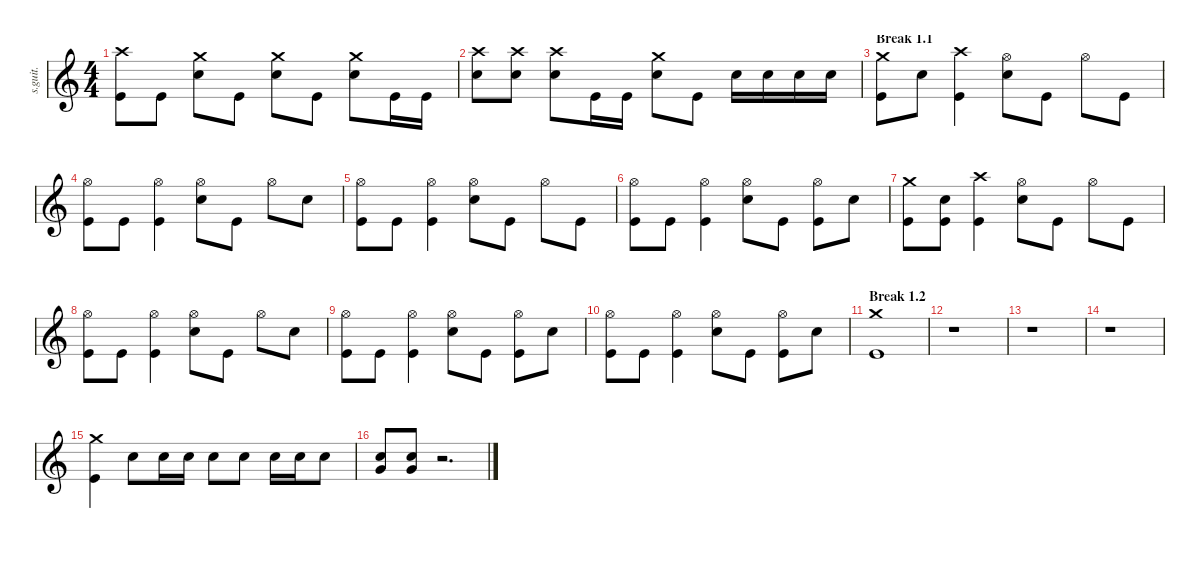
\defaultSystemsLayout 4
\hideDynamics
\bracketExtendMode nobrackets
\track ("Joey Jordison" "s.guit.") {instrument percussion}
\staff {score}
\articulation defaults
\ts (4 4)
\tempo (210 hide)
\clef g2
\ks c
("Crash high (hit)" "Kick (hit)").8{lyrics (0 "") lyrics (1 "") lyrics (2 "") lyrics (3 "") lyrics (4 "") dy ff} "Kick (hit)".8{lyrics (0 "") lyrics (1 "") lyrics (2 "") lyrics (3 "") lyrics (4 "")} ("Crash medium (hit)" "Snare (hit) 2").8{lyrics (0 "") lyrics (1 "") lyrics (2 "") lyrics (3 "") lyrics (4 "")} "Kick (hit)".8{lyrics (0 "") lyrics (1 "") lyrics (2 "") lyrics (3 "") lyrics (4 "")} ("Crash medium (hit)" "Snare (hit) 2").8{lyrics (0 "") lyrics (1 "") lyrics (2 "") lyrics (3 "") lyrics (4 "")} "Kick (hit)".8{lyrics (0 "") lyrics (1 "") lyrics (2 "") lyrics (3 "") lyrics (4 "")} ("Crash medium (hit)" "Snare (hit) 2").8{lyrics (0 "") lyrics (1 "") lyrics (2 "") lyrics (3 "") lyrics (4 "")} "Kick (hit)".16{lyrics (0 "") lyrics (1 "") lyrics (2 "") lyrics (3 "") lyrics (4 "")} "Kick (hit)".16{lyrics (0 "") lyrics (1 "") lyrics (2 "") lyrics (3 "") lyrics (4 "")} |
("Crash high (hit)" "Snare (hit) 2").8{lyrics (0 "") lyrics (1 "") lyrics (2 "") lyrics (3 "") lyrics (4 "")} ("Crash high (hit)" "Snare (hit) 2").8{lyrics (0 "") lyrics (1 "") lyrics (2 "") lyrics (3 "") lyrics (4 "")} ("Crash high (hit)" "Snare (hit) 2").8{lyrics (0 "") lyrics (1 "") lyrics (2 "") lyrics (3 "") lyrics (4 "")} "Kick (hit)".16{lyrics (0 "") lyrics (1 "") lyrics (2 "") lyrics (3 "") lyrics (4 "")} "Kick (hit)".16{lyrics (0 "") lyrics (1 "") lyrics (2 "") lyrics (3 "") lyrics (4 "")} ("Crash medium (hit)" "Snare (hit) 2").8{lyrics (0 "") lyrics (1 "") lyrics (2 "") lyrics (3 "") lyrics (4 "")} "Kick (hit)".8{lyrics (0 "") lyrics (1 "") lyrics (2 "") lyrics (3 "") lyrics (4 "")} "Snare (hit) 2".16{lyrics (0 "") lyrics (1 "") lyrics (2 "") lyrics (3 "") lyrics (4 "")} "Snare (hit) 2".16{lyrics (0 "") lyrics (1 "") lyrics (2 "") lyrics (3 "") lyrics (4 "")} "Snare (hit) 2".16{lyrics (0 "") lyrics (1 "") lyrics (2 "") lyrics (3 "") lyrics (4 "")} "Snare (hit) 2".16{lyrics (0 "") lyrics (1 "") lyrics (2 "") lyrics (3 "") lyrics (4 "")} |
\section ("" "Break 1.1")
("Crash medium (hit)" "Kick (hit)").8{lyrics (0 "") lyrics (1 "") lyrics (2 "") lyrics (3 "") lyrics (4 "")} "Snare (hit) 2".8{lyrics (0 "") lyrics (1 "") lyrics (2 "") lyrics (3 "") lyrics (4 "")} ("Crash high (hit)" "Kick (hit)").4{lyrics (0 "") lyrics (1 "") lyrics (2 "") lyrics (3 "") lyrics (4 "")} ("Hi-Hat (open)" "Snare (hit) 2").8{lyrics (0 "") lyrics (1 "") lyrics (2 "") lyrics (3 "") lyrics (4 "")} "Kick (hit)".8{lyrics (0 "") lyrics (1 "") lyrics (2 "") lyrics (3 "") lyrics (4 "")} "Hi-Hat (open)".8{lyrics (0 "") lyrics (1 "") lyrics (2 "") lyrics (3 "") lyrics (4 "")} "Kick (hit)".8{lyrics (0 "") lyrics (1 "") lyrics (2 "") lyrics (3 "") lyrics (4 "")} |
("Hi-Hat (open)" "Kick (hit)").8{lyrics (0 "") lyrics (1 "") lyrics (2 "") lyrics (3 "") lyrics (4 "")} "Kick (hit)".8{lyrics (0 "") lyrics (1 "") lyrics (2 "") lyrics (3 "") lyrics (4 "")} ("Hi-Hat (open)" "Kick (hit)").4{lyrics (0 "") lyrics (1 "") lyrics (2 "") lyrics (3 "") lyrics (4 "")} ("Hi-Hat (open)" "Snare (hit) 2").8{lyrics (0 "") lyrics (1 "") lyrics (2 "") lyrics (3 "") lyrics (4 "")} "Kick (hit)".8{lyrics (0 "") lyrics (1 "") lyrics (2 "") lyrics (3 "") lyrics (4 "")} "Hi-Hat (open)".8{lyrics (0 "") lyrics (1 "") lyrics (2 "") lyrics (3 "") lyrics (4 "")} "Snare (hit) 2".8{lyrics (0 "") lyrics (1 "") lyrics (2 "") lyrics (3 "") lyrics (4 "")} |
("Hi-Hat (open)" "Kick (hit)").8{lyrics (0 "") lyrics (1 "") lyrics (2 "") lyrics (3 "") lyrics (4 "")} "Kick (hit)".8{lyrics (0 "") lyrics (1 "") lyrics (2 "") lyrics (3 "") lyrics (4 "")} ("Hi-Hat (open)" "Kick (hit)").4{lyrics (0 "") lyrics (1 "") lyrics (2 "") lyrics (3 "") lyrics (4 "")} ("Hi-Hat (open)" "Snare (hit) 2").8{lyrics (0 "") lyrics (1 "") lyrics (2 "") lyrics (3 "") lyrics (4 "")} "Kick (hit)".8{lyrics (0 "") lyrics (1 "") lyrics (2 "") lyrics (3 "") lyrics (4 "")} "Hi-Hat (open)".8{lyrics (0 "") lyrics (1 "") lyrics (2 "") lyrics (3 "") lyrics (4 "")} "Kick (hit)".8{lyrics (0 "") lyrics (1 "") lyrics (2 "") lyrics (3 "") lyrics (4 "")} |
("Hi-Hat (open)" "Kick (hit)").8{lyrics (0 "") lyrics (1 "") lyrics (2 "") lyrics (3 "") lyrics (4 "")} "Kick (hit)".8{lyrics (0 "") lyrics (1 "") lyrics (2 "") lyrics (3 "") lyrics (4 "")} ("Hi-Hat (open)" "Kick (hit)").4{lyrics (0 "") lyrics (1 "") lyrics (2 "") lyrics (3 "") lyrics (4 "")} ("Hi-Hat (open)" "Snare (hit) 2").8{lyrics (0 "") lyrics (1 "") lyrics (2 "") lyrics (3 "") lyrics (4 "")} "Kick (hit)".8{lyrics (0 "") lyrics (1 "") lyrics (2 "") lyrics (3 "") lyrics (4 "")} ("Hi-Hat (open)" "Kick (hit)").8{lyrics (0 "") lyrics (1 "") lyrics (2 "") lyrics (3 "") lyrics (4 "")} "Snare (hit) 2".8{lyrics (0 "") lyrics (1 "") lyrics (2 "") lyrics (3 "") lyrics (4 "")} |
("Crash medium (hit)" "Kick (hit)").8{lyrics (0 "") lyrics (1 "") lyrics (2 "") lyrics (3 "") lyrics (4 "")} ("Snare (hit) 2" "Kick (hit)").8{lyrics (0 "") lyrics (1 "") lyrics (2 "") lyrics (3 "") lyrics (4 "")} ("Crash high (hit)" "Kick (hit)").4{lyrics (0 "") lyrics (1 "") lyrics (2 "") lyrics (3 "") lyrics (4 "")} ("Hi-Hat (open)" "Snare (hit) 2").8{lyrics (0 "") lyrics (1 "") lyrics (2 "") lyrics (3 "") lyrics (4 "")} "Kick (hit)".8{lyrics (0 "") lyrics (1 "") lyrics (2 "") lyrics (3 "") lyrics (4 "")} "Hi-Hat (open)".8{lyrics (0 "") lyrics (1 "") lyrics (2 "") lyrics (3 "") lyrics (4 "")} "Kick (hit)".8{lyrics (0 "") lyrics (1 "") lyrics (2 "") lyrics (3 "") lyrics (4 "")} |
("Hi-Hat (open)" "Kick (hit)").8{lyrics (0 "") lyrics (1 "") lyrics (2 "") lyrics (3 "") lyrics (4 "")} "Kick (hit)".8{lyrics (0 "") lyrics (1 "") lyrics (2 "") lyrics (3 "") lyrics (4 "")} ("Hi-Hat (open)" "Kick (hit)").4{lyrics (0 "") lyrics (1 "") lyrics (2 "") lyrics (3 "") lyrics (4 "")} ("Hi-Hat (open)" "Snare (hit) 2").8{lyrics (0 "") lyrics (1 "") lyrics (2 "") lyrics (3 "") lyrics (4 "")} "Kick (hit)".8{lyrics (0 "") lyrics (1 "") lyrics (2 "") lyrics (3 "") lyrics (4 "")} "Hi-Hat (open)".8{lyrics (0 "") lyrics (1 "") lyrics (2 "") lyrics (3 "") lyrics (4 "")} "Snare (hit) 2".8{lyrics (0 "") lyrics (1 "") lyrics (2 "") lyrics (3 "") lyrics (4 "")} |
("Hi-Hat (open)" "Kick (hit)").8{lyrics (0 "") lyrics (1 "") lyrics (2 "") lyrics (3 "") lyrics (4 "")} "Kick (hit)".8{lyrics (0 "") lyrics (1 "") lyrics (2 "") lyrics (3 "") lyrics (4 "")} ("Hi-Hat (open)" "Kick (hit)").4{lyrics (0 "") lyrics (1 "") lyrics (2 "") lyrics (3 "") lyrics (4 "")} ("Hi-Hat (open)" "Snare (hit) 2").8{lyrics (0 "") lyrics (1 "") lyrics (2 "") lyrics (3 "") lyrics (4 "")} "Kick (hit)".8{lyrics (0 "") lyrics (1 "") lyrics (2 "") lyrics (3 "") lyrics (4 "")} ("Hi-Hat (open)" "Kick (hit)").8{lyrics (0 "") lyrics (1 "") lyrics (2 "") lyrics (3 "") lyrics (4 "")} "Snare (hit) 2".8{lyrics (0 "") lyrics (1 "") lyrics (2 "") lyrics (3 "") lyrics (4 "")} |
("Hi-Hat (open)" "Kick (hit)").8{lyrics (0 "") lyrics (1 "") lyrics (2 "") lyrics (3 "") lyrics (4 "")} "Kick (hit)".8{lyrics (0 "") lyrics (1 "") lyrics (2 "") lyrics (3 "") lyrics (4 "")} ("Hi-Hat (open)" "Kick (hit)").4{lyrics (0 "") lyrics (1 "") lyrics (2 "") lyrics (3 "") lyrics (4 "")} ("Hi-Hat (open)" "Snare (hit) 2").8{lyrics (0 "") lyrics (1 "") lyrics (2 "") lyrics (3 "") lyrics (4 "")} "Kick (hit)".8{lyrics (0 "") lyrics (1 "") lyrics (2 "") lyrics (3 "") lyrics (4 "")} ("Hi-Hat (open)" "Kick (hit)").8{lyrics (0 "") lyrics (1 "") lyrics (2 "") lyrics (3 "") lyrics (4 "")} "Snare (hit) 2".8{lyrics (0 "") lyrics (1 "") lyrics (2 "") lyrics (3 "") lyrics (4 "")} |
\section ("" "Break 1.2")
\tempo (188 hide)
("Crash medium (hit)" "Kick (hit)").1{lyrics (0 "") lyrics (1 "") lyrics (2 "") lyrics (3 "") lyrics (4 "")} |
r.1 |
r.1 |
r.1 |
\tempo (195 hide)
("Crash medium (hit)" "Kick (hit)").4{lyrics (0 "") lyrics (1 "") lyrics (2 "") lyrics (3 "") lyrics (4 "")} "Snare (hit) 2".8{lyrics (0 "") lyrics (1 "") lyrics (2 "") lyrics (3 "") lyrics (4 "")} "Snare (hit) 2".16{lyrics (0 "") lyrics (1 "") lyrics (2 "") lyrics (3 "") lyrics (4 "")} "Snare (hit) 2".16{lyrics (0 "") lyrics (1 "") lyrics (2 "") lyrics (3 "") lyrics (4 "")} "Snare (hit) 2".8{lyrics (0 "") lyrics (1 "") lyrics (2 "") lyrics (3 "") lyrics (4 "")} "Snare (hit) 2".8{lyrics (0 "") lyrics (1 "") lyrics (2 "") lyrics (3 "") lyrics (4 "")} "Snare (hit) 2".16{lyrics (0 "") lyrics (1 "") lyrics (2 "") lyrics (3 "") lyrics (4 "")} "Snare (hit) 2".16{lyrics (0 "") lyrics (1 "") lyrics (2 "") lyrics (3 "") lyrics (4 "")} "Snare (hit) 2".8{lyrics (0 "") lyrics (1 "") lyrics (2 "") lyrics (3 "") lyrics (4 "")} |
("Snare (hit) 2" "Very Low Tom (hit)").8{lyrics (0 "") lyrics (1 "") lyrics (2 "") lyrics (3 "") lyrics (4 "")} ("Snare (hit) 2" "Very Low Tom (hit)").8{lyrics (0 "") lyrics (1 "") lyrics (2 "") lyrics (3 "") lyrics (4 "")} r.2{d}
